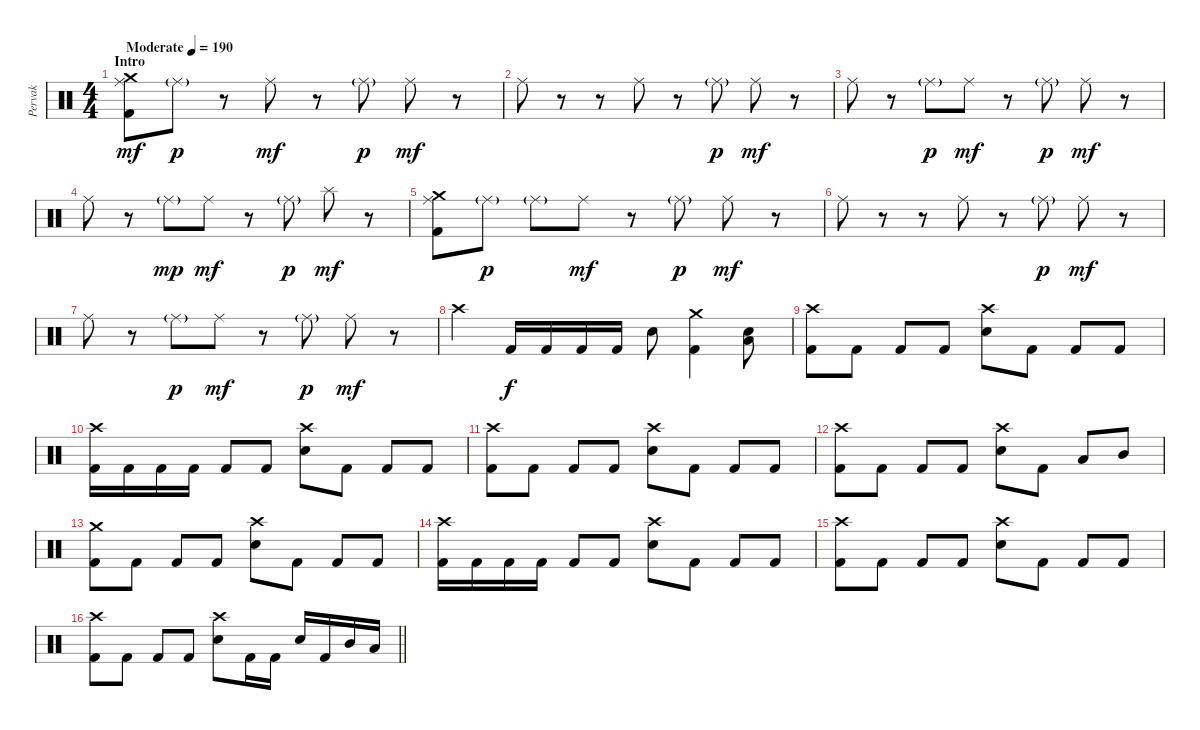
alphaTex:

\track ("Pervak" "Pervak") {instrument percussion}
\staff {score}
\articulation defaults
\ts (4 4)
\section ("" "Intro")
\tempo (190 "Moderate")
\clef neutral
\ks c
("Ride (middle)" "Crash medium (hit)" "Kick (hit) 2").8{dy mf volume 7} "Ride (middle)"{g}.8{dy p} r.8 "Ride (middle)".8{dy mf} r.8 "Ride (middle)"{g}.8{dy p} "Ride (middle)".8{dy mf} r.8 |
"Ride (middle)".8 r.8 r.8 "Ride (middle)".8 r.8 "Ride (middle)"{g}.8{dy p} "Ride (middle)".8{dy mf} r.8 |
"Ride (middle)".8{volume 8} r.8 "Ride (middle)"{g}.8{dy p} "Ride (middle)".8{dy mf} r.8 "Ride (middle)"{g}.8{dy p} "Ride (middle)".8{dy mf} r.8 |
"Ride (middle)".8 r.8 "Ride (middle)"{g}.8{dy mp} "Ride (middle)".8{dy mf} r.8 "Ride (middle)"{g}.8{dy p} "Splash (hit)".8{dy mf} r.8 |
("Ride (middle)" "Crash medium (hit)" "Kick (hit) 2").8{volume 9} "Ride (middle)"{g}.8{dy p} "Ride (middle)"{g}.8 "Ride (middle)".8{dy mf} r.8 "Ride (middle)"{g}.8{dy p} "Ride (middle)".8{dy mf} r.8 |
"Ride (middle)".8 r.8 r.8 "Ride (middle)".8 r.8 "Ride (middle)"{g}.8{dy p} "Ride (middle)".8{dy mf} r.8 |
"Ride (middle)".8{volume 11} r.8 "Ride (middle)"{g}.8{dy p} "Ride (middle)".8{dy mf} r.8 "Ride (middle)"{g}.8{dy p} "Ride (middle)".8{dy mf} r.8 |
"Crash high (hit)".4 "Kick (hit) 2".16{dy f} "Kick (hit) 2".16 "Kick (hit) 2".16 "Kick (hit) 2".16 "Electric Snare (hit)".8 ("Crash medium (hit)" "Kick (hit) 2").4 ("Low Tom (hit)" "Electric Snare (hit)").8 |
("Crash high (hit)" "Kick (hit) 2").8{volume 16} "Kick (hit) 2".8 "Kick (hit) 2".8 "Kick (hit) 2".8 ("Crash high (hit)" "Electric Snare (hit)").8 "Kick (hit) 2".8 "Kick (hit) 2".8 "Kick (hit) 2".8 |
("Crash high (hit)" "Kick (hit) 2").16 "Kick (hit) 2".16 "Kick (hit) 2".16 "Kick (hit) 2".16 "Kick (hit) 2".8 "Kick (hit) 2".8 ("Crash high (hit)" "Electric Snare (hit)").8 "Kick (hit) 2".8 "Kick (hit) 2".8 "Kick (hit) 2".8 |
("Crash high (hit)" "Kick (hit) 2").8 "Kick (hit) 2".8 "Kick (hit) 2".8 "Kick (hit) 2".8 ("Crash high (hit)" "Electric Snare (hit)").8 "Kick (hit) 2".8 "Kick (hit) 2".8 "Kick (hit) 2".8 |
("Crash high (hit)" "Kick (hit) 2").8 "Kick (hit) 2".8 "Kick (hit) 2".8 "Kick (hit) 2".8 ("Crash high (hit)" "Electric Snare (hit)").8 "Kick (hit) 2".8 "Low Tom (hit)".8 "Mid Tom (hit)".8 |
("Crash medium (hit)" "Kick (hit) 2").8 "Kick (hit) 2".8 "Kick (hit) 2".8 "Kick (hit) 2".8 ("Crash high (hit)" "Electric Snare (hit)").8 "Kick (hit) 2".8 "Kick (hit) 2".8 "Kick (hit) 2".8 |
("Crash high (hit)" "Kick (hit) 2").16 "Kick (hit) 2".16 "Kick (hit) 2".16 "Kick (hit) 2".16 "Kick (hit) 2".8 "Kick (hit) 2".8 ("Crash high (hit)" "Electric Snare (hit)").8 "Kick (hit) 2".8 "Kick (hit) 2".8 "Kick (hit) 2".8 |
("Crash high (hit)" "Kick (hit) 2").8 "Kick (hit) 2".8 "Kick (hit) 2".8 "Kick (hit) 2".8 ("Crash high (hit)" "Electric Snare (hit)").8 "Kick (hit) 2".8 "Kick (hit) 2".8 "Kick (hit) 2".8 |
\barLineRight lightlight
("Crash high (hit)" "Kick (hit) 2").8 "Kick (hit) 2".8 "Kick (hit) 2".8 "Kick (hit) 2".8 ("Crash high (hit)" "Electric Snare (hit)").8 "Kick (hit) 2".16 "Kick (hit) 2".16 "Electric Snare (hit)".16 "Kick (hit) 2".16 "Mid Tom (hit)".16 "Low Tom (hit)".16
